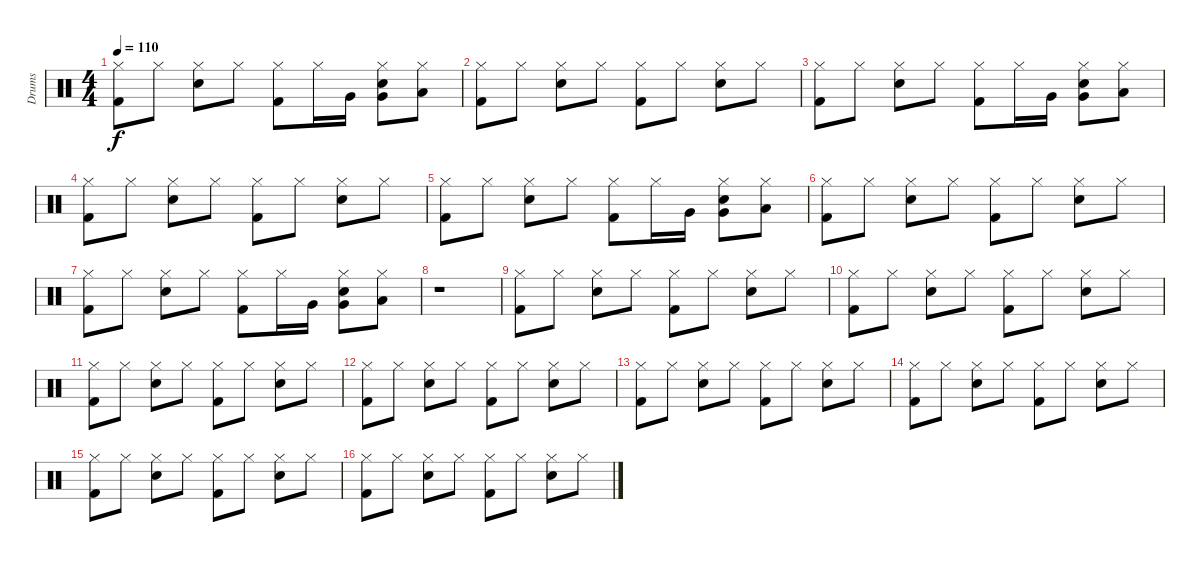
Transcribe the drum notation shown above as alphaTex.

\track ("Drums" "Drums") {instrument percussion}
\staff {score}
\articulation defaults
\ts (4 4)
\tempo 110
\clef neutral
\ks c
("Hi-Hat (closed)" "Kick (hit) 2").8{dy f} "Hi-Hat (closed)".8 ("Hi-Hat (closed)" "Electric Snare (hit)").8 "Hi-Hat (closed)".8 ("Hi-Hat (closed)" "Kick (hit) 2").8 "Hi-Hat (closed)".16 "Very Low Tom (hit)".16 ("Hi-Hat (closed)" "Electric Snare (hit)" "Very Low Tom (hit)").8 ("Hi-Hat (closed)" "Low Floor Tom (hit)").8 |
("Hi-Hat (closed)" "Kick (hit) 2").8 "Hi-Hat (closed)".8 ("Hi-Hat (closed)" "Electric Snare (hit)").8 "Hi-Hat (closed)".8 ("Hi-Hat (closed)" "Kick (hit) 2").8 "Hi-Hat (closed)".8 ("Hi-Hat (closed)" "Electric Snare (hit)").8 "Hi-Hat (closed)".8 |
("Hi-Hat (closed)" "Kick (hit) 2").8 "Hi-Hat (closed)".8 ("Hi-Hat (closed)" "Electric Snare (hit)").8 "Hi-Hat (closed)".8 ("Hi-Hat (closed)" "Kick (hit) 2").8 "Hi-Hat (closed)".16 "Very Low Tom (hit)".16 ("Hi-Hat (closed)" "Electric Snare (hit)" "Very Low Tom (hit)").8 ("Hi-Hat (closed)" "Low Floor Tom (hit)").8 |
("Hi-Hat (closed)" "Kick (hit) 2").8 "Hi-Hat (closed)".8 ("Hi-Hat (closed)" "Electric Snare (hit)").8 "Hi-Hat (closed)".8 ("Hi-Hat (closed)" "Kick (hit) 2").8 "Hi-Hat (closed)".8 ("Hi-Hat (closed)" "Electric Snare (hit)").8 "Hi-Hat (closed)".8 |
("Hi-Hat (closed)" "Kick (hit) 2").8 "Hi-Hat (closed)".8 ("Hi-Hat (closed)" "Electric Snare (hit)").8 "Hi-Hat (closed)".8 ("Hi-Hat (closed)" "Kick (hit) 2").8 "Hi-Hat (closed)".16 "Very Low Tom (hit)".16 ("Hi-Hat (closed)" "Electric Snare (hit)" "Very Low Tom (hit)").8 ("Hi-Hat (closed)" "Low Floor Tom (hit)").8 |
("Hi-Hat (closed)" "Kick (hit) 2").8 "Hi-Hat (closed)".8 ("Hi-Hat (closed)" "Electric Snare (hit)").8 "Hi-Hat (closed)".8 ("Hi-Hat (closed)" "Kick (hit) 2").8 "Hi-Hat (closed)".8 ("Hi-Hat (closed)" "Electric Snare (hit)").8 "Hi-Hat (closed)".8 |
("Hi-Hat (closed)" "Kick (hit) 2").8 "Hi-Hat (closed)".8 ("Hi-Hat (closed)" "Electric Snare (hit)").8 "Hi-Hat (closed)".8 ("Hi-Hat (closed)" "Kick (hit) 2").8 "Hi-Hat (closed)".16 "Very Low Tom (hit)".16 ("Hi-Hat (closed)" "Electric Snare (hit)" "Very Low Tom (hit)").8 ("Hi-Hat (closed)" "Low Floor Tom (hit)").8 |
r.1 |
("Hi-Hat (closed)" "Kick (hit) 2").8 "Hi-Hat (closed)".8 ("Hi-Hat (closed)" "Electric Snare (hit)").8 "Hi-Hat (closed)".8 ("Hi-Hat (closed)" "Kick (hit) 2").8 "Hi-Hat (closed)".8 ("Hi-Hat (closed)" "Electric Snare (hit)").8 "Hi-Hat (closed)".8 |
("Hi-Hat (closed)" "Kick (hit) 2").8 "Hi-Hat (closed)".8 ("Hi-Hat (closed)" "Electric Snare (hit)").8 "Hi-Hat (closed)".8 ("Hi-Hat (closed)" "Kick (hit) 2").8 "Hi-Hat (closed)".8 ("Hi-Hat (closed)" "Electric Snare (hit)").8 "Hi-Hat (closed)".8 |
("Hi-Hat (closed)" "Kick (hit) 2").8 "Hi-Hat (closed)".8 ("Hi-Hat (closed)" "Electric Snare (hit)").8 "Hi-Hat (closed)".8 ("Hi-Hat (closed)" "Kick (hit) 2").8 "Hi-Hat (closed)".8 ("Hi-Hat (closed)" "Electric Snare (hit)").8 "Hi-Hat (closed)".8 |
("Hi-Hat (closed)" "Kick (hit) 2").8 "Hi-Hat (closed)".8 ("Hi-Hat (closed)" "Electric Snare (hit)").8 "Hi-Hat (closed)".8 ("Hi-Hat (closed)" "Kick (hit) 2").8 "Hi-Hat (closed)".8 ("Hi-Hat (closed)" "Electric Snare (hit)").8 "Hi-Hat (closed)".8 |
("Hi-Hat (closed)" "Kick (hit) 2").8 "Hi-Hat (closed)".8 ("Hi-Hat (closed)" "Electric Snare (hit)").8 "Hi-Hat (closed)".8 ("Hi-Hat (closed)" "Kick (hit) 2").8 "Hi-Hat (closed)".8 ("Hi-Hat (closed)" "Electric Snare (hit)").8 "Hi-Hat (closed)".8 |
("Hi-Hat (closed)" "Kick (hit) 2").8 "Hi-Hat (closed)".8 ("Hi-Hat (closed)" "Electric Snare (hit)").8 "Hi-Hat (closed)".8 ("Hi-Hat (closed)" "Kick (hit) 2").8 "Hi-Hat (closed)".8 ("Hi-Hat (closed)" "Electric Snare (hit)").8 "Hi-Hat (closed)".8 |
("Hi-Hat (closed)" "Kick (hit) 2").8 "Hi-Hat (closed)".8 ("Hi-Hat (closed)" "Electric Snare (hit)").8 "Hi-Hat (closed)".8 ("Hi-Hat (closed)" "Kick (hit) 2").8 "Hi-Hat (closed)".8 ("Hi-Hat (closed)" "Electric Snare (hit)").8 "Hi-Hat (closed)".8 |
("Hi-Hat (closed)" "Kick (hit) 2").8 "Hi-Hat (closed)".8 ("Hi-Hat (closed)" "Electric Snare (hit)").8 "Hi-Hat (closed)".8 ("Hi-Hat (closed)" "Kick (hit) 2").8 "Hi-Hat (closed)".8 ("Hi-Hat (closed)" "Electric Snare (hit)").8 "Hi-Hat (closed)".8
